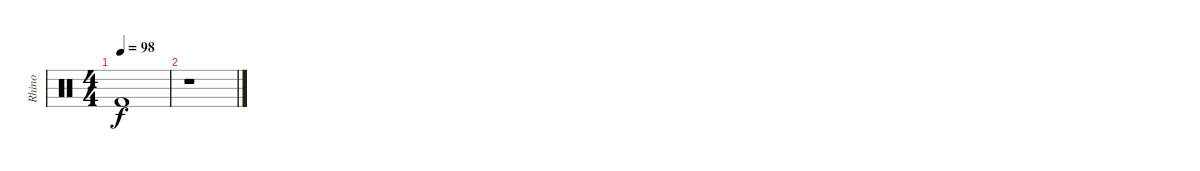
\track ("Rhino" "Rhino") {instrument percussion}
\staff {score}
\articulation defaults
\ts (4 4)
\tempo 98
\clef neutral
\ks c "Kick (hit) 2".1{dy f}
|
r.1
